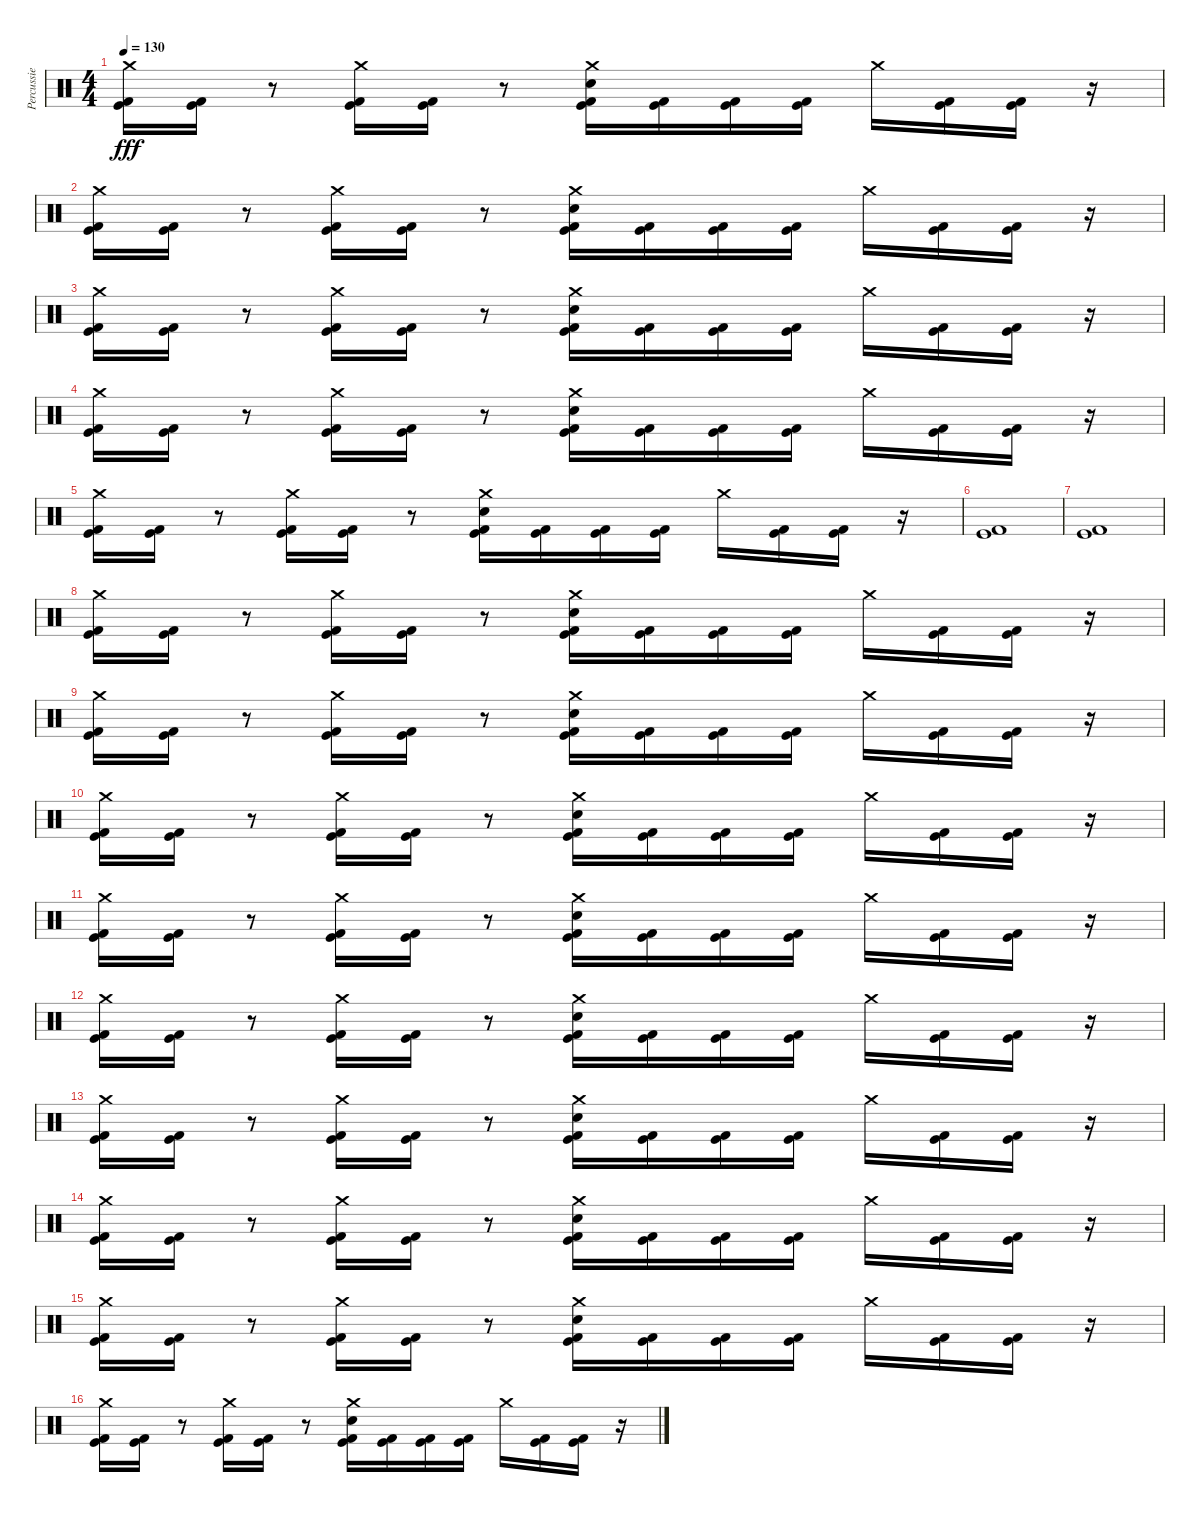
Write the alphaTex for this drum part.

\track ("Percussie" "Percussie") {instrument percussion}
\staff {score}
\articulation defaults
\ts (4 4)
\tempo 130
\clef neutral
\ks c
("Crash medium (hit)" "Kick (hit)" "Kick (hit) 2").16{dy fff} ("Kick (hit)" "Kick (hit) 2").16 r.8 ("Crash medium (hit)" "Kick (hit)" "Kick (hit) 2").16 ("Kick (hit)" "Kick (hit) 2").16 r.8 ("Crash medium (hit)" "Electric Snare (hit)" "Kick (hit)" "Kick (hit) 2").16 ("Kick (hit)" "Kick (hit) 2").16 ("Kick (hit)" "Kick (hit) 2").16 ("Kick (hit)" "Kick (hit) 2").16 "Crash medium (hit)".16 ("Kick (hit)" "Kick (hit) 2").16 ("Kick (hit)" "Kick (hit) 2").16 r.16 |
("Crash medium (hit)" "Kick (hit)" "Kick (hit) 2").16 ("Kick (hit)" "Kick (hit) 2").16 r.8 ("Crash medium (hit)" "Kick (hit)" "Kick (hit) 2").16 ("Kick (hit)" "Kick (hit) 2").16 r.8 ("Crash medium (hit)" "Electric Snare (hit)" "Kick (hit)" "Kick (hit) 2").16 ("Kick (hit)" "Kick (hit) 2").16 ("Kick (hit)" "Kick (hit) 2").16 ("Kick (hit)" "Kick (hit) 2").16 "Crash medium (hit)".16 ("Kick (hit)" "Kick (hit) 2").16 ("Kick (hit)" "Kick (hit) 2").16 r.16 |
("Crash medium (hit)" "Kick (hit)" "Kick (hit) 2").16 ("Kick (hit)" "Kick (hit) 2").16 r.8 ("Crash medium (hit)" "Kick (hit)" "Kick (hit) 2").16 ("Kick (hit)" "Kick (hit) 2").16 r.8 ("Crash medium (hit)" "Electric Snare (hit)" "Kick (hit)" "Kick (hit) 2").16 ("Kick (hit)" "Kick (hit) 2").16 ("Kick (hit)" "Kick (hit) 2").16 ("Kick (hit)" "Kick (hit) 2").16 "Crash medium (hit)".16 ("Kick (hit)" "Kick (hit) 2").16 ("Kick (hit)" "Kick (hit) 2").16 r.16 |
("Crash medium (hit)" "Kick (hit)" "Kick (hit) 2").16 ("Kick (hit)" "Kick (hit) 2").16 r.8 ("Crash medium (hit)" "Kick (hit)" "Kick (hit) 2").16 ("Kick (hit)" "Kick (hit) 2").16 r.8 ("Crash medium (hit)" "Electric Snare (hit)" "Kick (hit)" "Kick (hit) 2").16 ("Kick (hit)" "Kick (hit) 2").16 ("Kick (hit)" "Kick (hit) 2").16 ("Kick (hit)" "Kick (hit) 2").16 "Crash medium (hit)".16 ("Kick (hit)" "Kick (hit) 2").16 ("Kick (hit)" "Kick (hit) 2").16 r.16 |
("Crash medium (hit)" "Kick (hit)" "Kick (hit) 2").16 ("Kick (hit)" "Kick (hit) 2").16 r.8 ("Crash medium (hit)" "Kick (hit)" "Kick (hit) 2").16 ("Kick (hit)" "Kick (hit) 2").16 r.8 ("Crash medium (hit)" "Electric Snare (hit)" "Kick (hit)" "Kick (hit) 2").16 ("Kick (hit)" "Kick (hit) 2").16 ("Kick (hit)" "Kick (hit) 2").16 ("Kick (hit)" "Kick (hit) 2").16 "Crash medium (hit)".16 ("Kick (hit)" "Kick (hit) 2").16 ("Kick (hit)" "Kick (hit) 2").16 r.16 |
("Kick (hit)" "Kick (hit) 2").1 |
("Kick (hit)" "Kick (hit) 2").1 |
("Crash medium (hit)" "Kick (hit)" "Kick (hit) 2").16 ("Kick (hit)" "Kick (hit) 2").16 r.8 ("Crash medium (hit)" "Kick (hit)" "Kick (hit) 2").16 ("Kick (hit)" "Kick (hit) 2").16 r.8 ("Crash medium (hit)" "Electric Snare (hit)" "Kick (hit)" "Kick (hit) 2").16 ("Kick (hit)" "Kick (hit) 2").16 ("Kick (hit)" "Kick (hit) 2").16 ("Kick (hit)" "Kick (hit) 2").16 "Crash medium (hit)".16 ("Kick (hit)" "Kick (hit) 2").16 ("Kick (hit)" "Kick (hit) 2").16 r.16 |
("Crash medium (hit)" "Kick (hit)" "Kick (hit) 2").16 ("Kick (hit)" "Kick (hit) 2").16 r.8 ("Crash medium (hit)" "Kick (hit)" "Kick (hit) 2").16 ("Kick (hit)" "Kick (hit) 2").16 r.8 ("Crash medium (hit)" "Electric Snare (hit)" "Kick (hit)" "Kick (hit) 2").16 ("Kick (hit)" "Kick (hit) 2").16 ("Kick (hit)" "Kick (hit) 2").16 ("Kick (hit)" "Kick (hit) 2").16 "Crash medium (hit)".16 ("Kick (hit)" "Kick (hit) 2").16 ("Kick (hit)" "Kick (hit) 2").16 r.16 |
("Crash medium (hit)" "Kick (hit)" "Kick (hit) 2").16 ("Kick (hit)" "Kick (hit) 2").16 r.8 ("Crash medium (hit)" "Kick (hit)" "Kick (hit) 2").16 ("Kick (hit)" "Kick (hit) 2").16 r.8 ("Crash medium (hit)" "Electric Snare (hit)" "Kick (hit)" "Kick (hit) 2").16 ("Kick (hit)" "Kick (hit) 2").16 ("Kick (hit)" "Kick (hit) 2").16 ("Kick (hit)" "Kick (hit) 2").16 "Crash medium (hit)".16 ("Kick (hit)" "Kick (hit) 2").16 ("Kick (hit)" "Kick (hit) 2").16 r.16 |
("Crash medium (hit)" "Kick (hit)" "Kick (hit) 2").16 ("Kick (hit)" "Kick (hit) 2").16 r.8 ("Crash medium (hit)" "Kick (hit)" "Kick (hit) 2").16 ("Kick (hit)" "Kick (hit) 2").16 r.8 ("Crash medium (hit)" "Electric Snare (hit)" "Kick (hit)" "Kick (hit) 2").16 ("Kick (hit)" "Kick (hit) 2").16 ("Kick (hit)" "Kick (hit) 2").16 ("Kick (hit)" "Kick (hit) 2").16 "Crash medium (hit)".16 ("Kick (hit)" "Kick (hit) 2").16 ("Kick (hit)" "Kick (hit) 2").16 r.16 |
("Crash medium (hit)" "Kick (hit)" "Kick (hit) 2").16 ("Kick (hit)" "Kick (hit) 2").16 r.8 ("Crash medium (hit)" "Kick (hit)" "Kick (hit) 2").16 ("Kick (hit)" "Kick (hit) 2").16 r.8 ("Crash medium (hit)" "Electric Snare (hit)" "Kick (hit)" "Kick (hit) 2").16 ("Kick (hit)" "Kick (hit) 2").16 ("Kick (hit)" "Kick (hit) 2").16 ("Kick (hit)" "Kick (hit) 2").16 "Crash medium (hit)".16 ("Kick (hit)" "Kick (hit) 2").16 ("Kick (hit)" "Kick (hit) 2").16 r.16 |
("Crash medium (hit)" "Kick (hit)" "Kick (hit) 2").16 ("Kick (hit)" "Kick (hit) 2").16 r.8 ("Crash medium (hit)" "Kick (hit)" "Kick (hit) 2").16 ("Kick (hit)" "Kick (hit) 2").16 r.8 ("Crash medium (hit)" "Electric Snare (hit)" "Kick (hit)" "Kick (hit) 2").16 ("Kick (hit)" "Kick (hit) 2").16 ("Kick (hit)" "Kick (hit) 2").16 ("Kick (hit)" "Kick (hit) 2").16 "Crash medium (hit)".16 ("Kick (hit)" "Kick (hit) 2").16 ("Kick (hit)" "Kick (hit) 2").16 r.16 |
("Crash medium (hit)" "Kick (hit)" "Kick (hit) 2").16 ("Kick (hit)" "Kick (hit) 2").16 r.8 ("Crash medium (hit)" "Kick (hit)" "Kick (hit) 2").16 ("Kick (hit)" "Kick (hit) 2").16 r.8 ("Crash medium (hit)" "Electric Snare (hit)" "Kick (hit)" "Kick (hit) 2").16 ("Kick (hit)" "Kick (hit) 2").16 ("Kick (hit)" "Kick (hit) 2").16 ("Kick (hit)" "Kick (hit) 2").16 "Crash medium (hit)".16 ("Kick (hit)" "Kick (hit) 2").16 ("Kick (hit)" "Kick (hit) 2").16 r.16 |
("Crash medium (hit)" "Kick (hit)" "Kick (hit) 2").16 ("Kick (hit)" "Kick (hit) 2").16 r.8 ("Crash medium (hit)" "Kick (hit)" "Kick (hit) 2").16 ("Kick (hit)" "Kick (hit) 2").16 r.8 ("Crash medium (hit)" "Electric Snare (hit)" "Kick (hit)" "Kick (hit) 2").16 ("Kick (hit)" "Kick (hit) 2").16 ("Kick (hit)" "Kick (hit) 2").16 ("Kick (hit)" "Kick (hit) 2").16 "Crash medium (hit)".16 ("Kick (hit)" "Kick (hit) 2").16 ("Kick (hit)" "Kick (hit) 2").16 r.16 |
("Crash medium (hit)" "Kick (hit)" "Kick (hit) 2").16{volume 0} ("Kick (hit)" "Kick (hit) 2").16 r.8 ("Crash medium (hit)" "Kick (hit)" "Kick (hit) 2").16 ("Kick (hit)" "Kick (hit) 2").16 r.8 ("Crash medium (hit)" "Electric Snare (hit)" "Kick (hit)" "Kick (hit) 2").16 ("Kick (hit)" "Kick (hit) 2").16 ("Kick (hit)" "Kick (hit) 2").16 ("Kick (hit)" "Kick (hit) 2").16 "Crash medium (hit)".16 ("Kick (hit)" "Kick (hit) 2").16 ("Kick (hit)" "Kick (hit) 2").16 r.16
